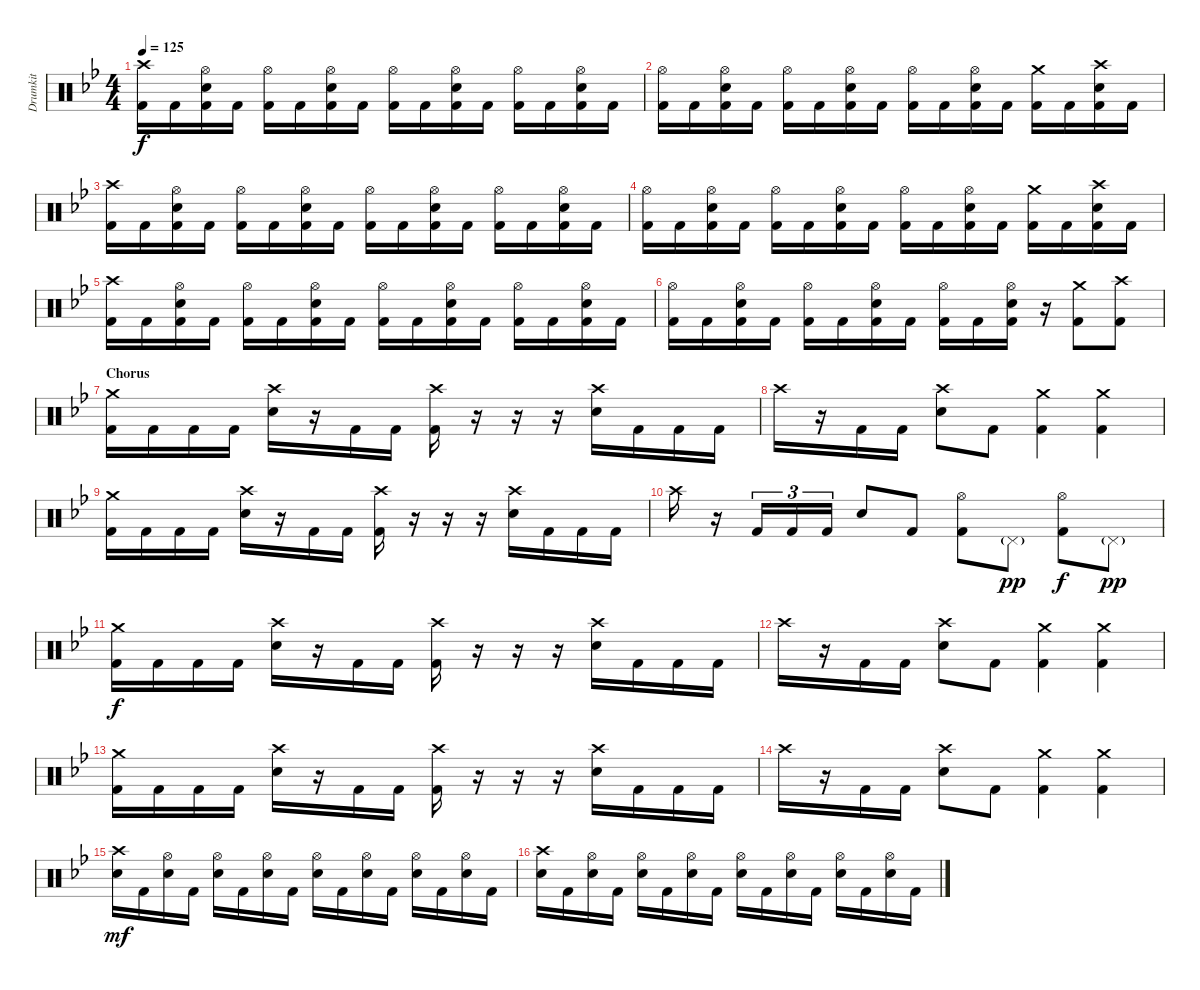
\track ("Drumkit" "Drumkit") {instrument percussion}
\staff {score}
\articulation defaults
\ts (4 4)
\tempo 125
\clef neutral
\ks bb
("Crash high (hit)" "Kick (hit) 2").16{dy f} "Kick (hit) 2".16 ("Hi-Hat (open)" "Snare (hit) 2" "Kick (hit) 2").16 "Kick (hit) 2".16 ("Hi-Hat (open)" "Kick (hit) 2").16 "Kick (hit) 2".16 ("Hi-Hat (open)" "Snare (hit) 2" "Kick (hit) 2").16 "Kick (hit) 2".16 ("Hi-Hat (open)" "Kick (hit) 2").16 "Kick (hit) 2".16 ("Hi-Hat (open)" "Snare (hit) 2" "Kick (hit) 2").16 "Kick (hit) 2".16 ("Hi-Hat (open)" "Kick (hit) 2").16 "Kick (hit) 2".16 ("Hi-Hat (open)" "Snare (hit) 2" "Kick (hit) 2").16 "Kick (hit) 2".16 |
("Hi-Hat (open)" "Kick (hit) 2").16 "Kick (hit) 2".16 ("Hi-Hat (open)" "Snare (hit) 2" "Kick (hit) 2").16 "Kick (hit) 2".16 ("Hi-Hat (open)" "Kick (hit) 2").16 "Kick (hit) 2".16 ("Hi-Hat (open)" "Snare (hit) 2" "Kick (hit) 2").16 "Kick (hit) 2".16 ("Hi-Hat (open)" "Kick (hit) 2").16 "Kick (hit) 2".16 ("Hi-Hat (open)" "Snare (hit) 2" "Kick (hit) 2").16 "Kick (hit) 2".16 ("Crash medium (hit)" "Kick (hit) 2").16 "Kick (hit) 2".16 ("Crash high (hit)" "Snare (hit) 2" "Kick (hit) 2").16 "Kick (hit) 2".16 |
("Crash high (hit)" "Kick (hit) 2").16 "Kick (hit) 2".16 ("Hi-Hat (open)" "Snare (hit) 2" "Kick (hit) 2").16 "Kick (hit) 2".16 ("Hi-Hat (open)" "Kick (hit) 2").16 "Kick (hit) 2".16 ("Hi-Hat (open)" "Snare (hit) 2" "Kick (hit) 2").16 "Kick (hit) 2".16 ("Hi-Hat (open)" "Kick (hit) 2").16 "Kick (hit) 2".16 ("Hi-Hat (open)" "Snare (hit) 2" "Kick (hit) 2").16 "Kick (hit) 2".16 ("Hi-Hat (open)" "Kick (hit) 2").16 "Kick (hit) 2".16 ("Hi-Hat (open)" "Snare (hit) 2" "Kick (hit) 2").16 "Kick (hit) 2".16 |
("Hi-Hat (open)" "Kick (hit) 2").16 "Kick (hit) 2".16 ("Hi-Hat (open)" "Snare (hit) 2" "Kick (hit) 2").16 "Kick (hit) 2".16 ("Hi-Hat (open)" "Kick (hit) 2").16 "Kick (hit) 2".16 ("Hi-Hat (open)" "Snare (hit) 2" "Kick (hit) 2").16 "Kick (hit) 2".16 ("Hi-Hat (open)" "Kick (hit) 2").16 "Kick (hit) 2".16 ("Hi-Hat (open)" "Snare (hit) 2" "Kick (hit) 2").16 "Kick (hit) 2".16 ("Crash medium (hit)" "Kick (hit) 2").16 "Kick (hit) 2".16 ("Crash high (hit)" "Snare (hit) 2" "Kick (hit) 2").16 "Kick (hit) 2".16 |
("Crash high (hit)" "Kick (hit) 2").16 "Kick (hit) 2".16 ("Hi-Hat (open)" "Snare (hit) 2" "Kick (hit) 2").16 "Kick (hit) 2".16 ("Hi-Hat (open)" "Kick (hit) 2").16 "Kick (hit) 2".16 ("Hi-Hat (open)" "Snare (hit) 2" "Kick (hit) 2").16 "Kick (hit) 2".16 ("Hi-Hat (open)" "Kick (hit) 2").16 "Kick (hit) 2".16 ("Hi-Hat (open)" "Snare (hit) 2" "Kick (hit) 2").16 "Kick (hit) 2".16 ("Hi-Hat (open)" "Kick (hit) 2").16 "Kick (hit) 2".16 ("Hi-Hat (open)" "Snare (hit) 2" "Kick (hit) 2").16 "Kick (hit) 2".16 |
("Hi-Hat (open)" "Kick (hit) 2").16 "Kick (hit) 2".16 ("Hi-Hat (open)" "Snare (hit) 2" "Kick (hit) 2").16 "Kick (hit) 2".16 ("Hi-Hat (open)" "Kick (hit) 2").16 "Kick (hit) 2".16 ("Hi-Hat (open)" "Snare (hit) 2" "Kick (hit) 2").16 "Kick (hit) 2".16 ("Hi-Hat (open)" "Kick (hit) 2").16 "Kick (hit) 2".16 ("Hi-Hat (open)" "Snare (hit) 2" "Kick (hit) 2").16 r.16 ("Crash medium (hit)" "Kick (hit) 2").8 ("Crash high (hit)" "Kick (hit) 2").8 |
\section ("" "Chorus")
("Crash medium (hit)" "Kick (hit) 2").16 "Kick (hit) 2".16 "Kick (hit) 2".16 "Kick (hit) 2".16 ("Crash high (hit)" "Snare (hit) 2").16 r.16 "Kick (hit) 2".16 "Kick (hit) 2".16 ("Crash high (hit)" "Kick (hit) 2").16 r.16 r.16 r.16 ("Crash high (hit)" "Snare (hit) 2").16 "Kick (hit) 2".16 "Kick (hit) 2".16 "Kick (hit) 2".16 |
"Crash high (hit)".16 r.16 "Kick (hit) 2".16 "Kick (hit) 2".16 ("Crash high (hit)" "Snare (hit) 2").8 "Kick (hit) 2".8 ("Crash medium (hit)" "Kick (hit) 2").4 ("Crash medium (hit)" "Kick (hit) 2").4 |
("Crash medium (hit)" "Kick (hit) 2").16 "Kick (hit) 2".16 "Kick (hit) 2".16 "Kick (hit) 2".16 ("Crash high (hit)" "Snare (hit) 2").16 r.16 "Kick (hit) 2".16 "Kick (hit) 2".16 ("Crash high (hit)" "Kick (hit) 2").16 r.16 r.16 r.16 ("Crash high (hit)" "Snare (hit) 2").16 "Kick (hit) 2".16 "Kick (hit) 2".16 "Kick (hit) 2".16 |
"Crash high (hit)".16 r.16 "Kick (hit) 2".16{tu (3 2)} "Kick (hit) 2".16{tu (3 2)} "Kick (hit) 2".16{tu (3 2)} "Snare (hit) 2".8 "Kick (hit) 2".8 ("Hi-Hat (open)" "Kick (hit) 2").8 "Pedal Hi-Hat (hit)"{g}.8{dy pp} ("Hi-Hat (open)" "Kick (hit) 2").8{dy f} "Pedal Hi-Hat (hit)"{g}.8{dy pp} |
("Crash medium (hit)" "Kick (hit) 2").16{dy f} "Kick (hit) 2".16 "Kick (hit) 2".16 "Kick (hit) 2".16 ("Crash high (hit)" "Snare (hit) 2").16 r.16 "Kick (hit) 2".16 "Kick (hit) 2".16 ("Crash high (hit)" "Kick (hit) 2").16 r.16 r.16 r.16 ("Crash high (hit)" "Snare (hit) 2").16 "Kick (hit) 2".16 "Kick (hit) 2".16 "Kick (hit) 2".16 |
"Crash high (hit)".16 r.16 "Kick (hit) 2".16 "Kick (hit) 2".16 ("Crash high (hit)" "Snare (hit) 2").8 "Kick (hit) 2".8 ("Crash medium (hit)" "Kick (hit) 2").4 ("Crash medium (hit)" "Kick (hit) 2").4 |
("Crash medium (hit)" "Kick (hit) 2").16 "Kick (hit) 2".16 "Kick (hit) 2".16 "Kick (hit) 2".16 ("Crash high (hit)" "Snare (hit) 2").16 r.16 "Kick (hit) 2".16 "Kick (hit) 2".16 ("Crash high (hit)" "Kick (hit) 2").16 r.16 r.16 r.16 ("Crash high (hit)" "Snare (hit) 2").16 "Kick (hit) 2".16 "Kick (hit) 2".16 "Kick (hit) 2".16 |
"Crash high (hit)".16 r.16 "Kick (hit) 2".16 "Kick (hit) 2".16 ("Crash high (hit)" "Snare (hit) 2").8 "Kick (hit) 2".8 ("Crash medium (hit)" "Kick (hit) 2").4 ("Crash medium (hit)" "Kick (hit) 2").4 |
("Crash high (hit)" "Snare (hit) 2").16{dy mf} "Kick (hit) 2".16 ("Hi-Hat (open)" "Snare (hit) 2").16 "Kick (hit) 2".16 ("Hi-Hat (open)" "Snare (hit) 2").16 "Kick (hit) 2".16 ("Hi-Hat (open)" "Snare (hit) 2").16 "Kick (hit) 2".16 ("Hi-Hat (open)" "Snare (hit) 2").16 "Kick (hit) 2".16 ("Hi-Hat (open)" "Snare (hit) 2").16 "Kick (hit) 2".16 ("Hi-Hat (open)" "Snare (hit) 2").16 "Kick (hit) 2".16 ("Hi-Hat (open)" "Snare (hit) 2").16 "Kick (hit) 2".16 |
("Crash high (hit)" "Snare (hit) 2").16 "Kick (hit) 2".16 ("Hi-Hat (open)" "Snare (hit) 2").16 "Kick (hit) 2".16 ("Hi-Hat (open)" "Snare (hit) 2").16 "Kick (hit) 2".16 ("Hi-Hat (open)" "Snare (hit) 2").16 "Kick (hit) 2".16 ("Hi-Hat (open)" "Snare (hit) 2").16 "Kick (hit) 2".16 ("Hi-Hat (open)" "Snare (hit) 2").16 "Kick (hit) 2".16 ("Hi-Hat (open)" "Snare (hit) 2").16 "Kick (hit) 2".16 ("Hi-Hat (open)" "Snare (hit) 2").16 "Kick (hit) 2".16
